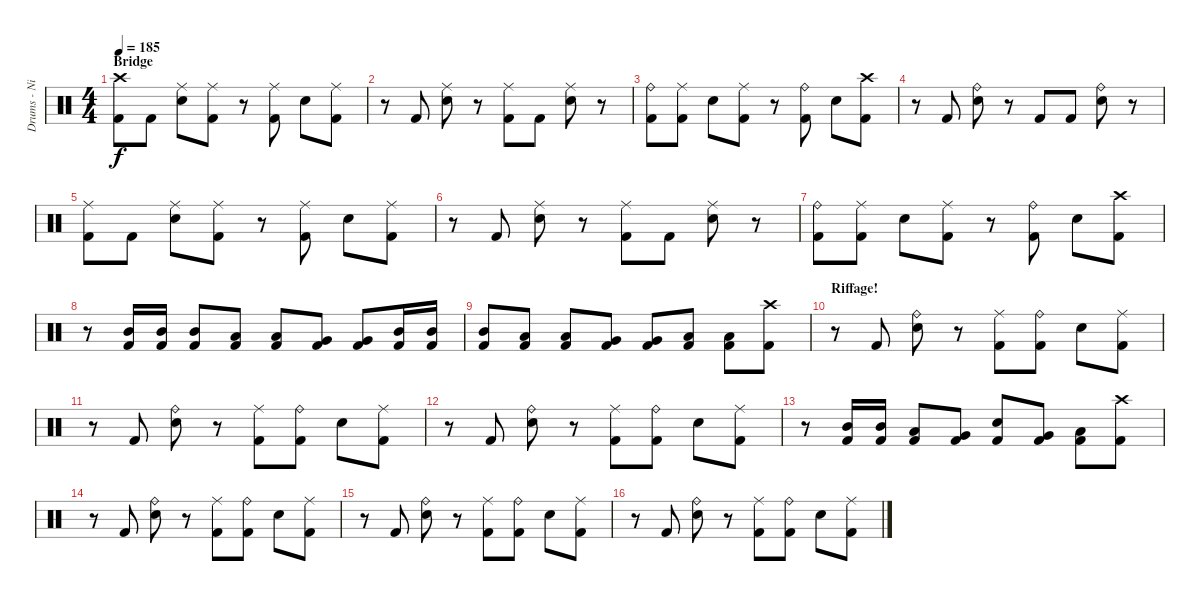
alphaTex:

\track ("Drums - Nicko" "Drums - Ni") {instrument percussion}
\staff {score}
\articulation defaults
\ts (4 4)
\section ("" "Bridge")
\tempo 185
\clef neutral
\ks c
("Crash high (hit)" "Kick (hit) 2").8{dy f} "Kick (hit) 2".8 ("Ride (middle)" "Snare (hit) 2").8 ("Ride (middle)" "Kick (hit) 2").8 r.8 ("Ride (middle)" "Kick (hit) 2").8 "Snare (hit) 2".8 ("Ride (middle)" "Kick (hit) 2").8 |
r.8 "Kick (hit) 2".8 ("Ride (middle)" "Snare (hit) 2").8 r.8 ("Ride (middle)" "Kick (hit) 2").8 "Kick (hit) 2".8 ("Ride (middle)" "Snare (hit) 2").8 r.8 |
("Ride (bell)" "Kick (hit) 2").8 ("Ride (middle)" "Kick (hit) 2").8 "Snare (hit) 2".8 ("Ride (middle)" "Kick (hit) 2").8 r.8 ("Ride (bell)" "Kick (hit) 2").8 "Snare (hit) 2".8 ("Crash high (hit)" "Kick (hit) 2").8 |
r.8 "Kick (hit) 2".8 ("Ride (bell)" "Snare (hit) 2").8 r.8 "Kick (hit) 2".8 "Kick (hit) 2".8 ("Ride (bell)" "Snare (hit) 2").8 r.8 |
("Ride (middle)" "Kick (hit) 2").8 "Kick (hit) 2".8 ("Ride (middle)" "Snare (hit) 2").8 ("Ride (middle)" "Kick (hit) 2").8 r.8 ("Ride (middle)" "Kick (hit) 2").8 "Snare (hit) 2".8 ("Ride (middle)" "Kick (hit) 2").8 |
r.8 "Kick (hit) 2".8 ("Ride (middle)" "Snare (hit) 2").8 r.8 ("Ride (middle)" "Kick (hit) 2").8 "Kick (hit) 2".8 ("Ride (middle)" "Snare (hit) 2").8 r.8 |
("Ride (bell)" "Kick (hit) 2").8 ("Ride (middle)" "Kick (hit) 2").8 "Snare (hit) 2".8 ("Ride (middle)" "Kick (hit) 2").8 r.8 ("Ride (bell)" "Kick (hit) 2").8 "Snare (hit) 2".8 ("Crash high (hit)" "Kick (hit) 2").8 |
r.8 ("Mid Tom (hit)" "Kick (hit) 2").16 ("Mid Tom (hit)" "Kick (hit) 2").16 ("Mid Tom (hit)" "Kick (hit) 2").8 ("Low Tom (hit)" "Kick (hit) 2").8 ("Low Tom (hit)" "Kick (hit) 2").8 ("Very Low Tom (hit)" "Kick (hit) 2").8 ("Very Low Tom (hit)" "Kick (hit) 2").8 ("Mid Tom (hit)" "Kick (hit) 2").16 ("Mid Tom (hit)" "Kick (hit) 2").16 |
("Mid Tom (hit)" "Kick (hit) 2").8 ("Low Tom (hit)" "Kick (hit) 2").8 ("Low Tom (hit)" "Kick (hit) 2").8 ("Very Low Tom (hit)" "Kick (hit) 2").8 ("Very Low Tom (hit)" "Kick (hit) 2").8 ("Low Floor Tom (hit)" "Kick (hit) 2").8 ("Low Floor Tom (hit)" "Kick (hit) 2").8 ("Crash high (hit)" "Kick (hit) 2").8 |
\section ("" "Riffage!")
r.8 "Kick (hit) 2".8 ("Ride (bell)" "Snare (hit) 2").8 r.8 ("Ride (middle)" "Kick (hit) 2").8 ("Ride (bell)" "Kick (hit) 2").8 "Snare (hit) 2".8 ("Ride (middle)" "Kick (hit) 2").8 |
r.8 "Kick (hit) 2".8 ("Ride (bell)" "Snare (hit) 2").8 r.8 ("Ride (middle)" "Kick (hit) 2").8 ("Ride (bell)" "Kick (hit) 2").8 "Snare (hit) 2".8 ("Ride (middle)" "Kick (hit) 2").8 |
r.8 "Kick (hit) 2".8 ("Ride (bell)" "Snare (hit) 2").8 r.8 ("Ride (middle)" "Kick (hit) 2").8 ("Ride (bell)" "Kick (hit) 2").8 "Snare (hit) 2".8 ("Ride (middle)" "Kick (hit) 2").8 |
r.8 ("Mid Tom (hit)" "Kick (hit) 2").16 ("Mid Tom (hit)" "Kick (hit) 2").16 ("Low Tom (hit)" "Kick (hit) 2").8 ("Very Low Tom (hit)" "Kick (hit) 2").8 ("Snare (hit) 2" "Kick (hit) 2").8 ("Very Low Tom (hit)" "Kick (hit) 2").8 ("Low Floor Tom (hit)" "Kick (hit) 2").8 ("Crash high (hit)" "Kick (hit) 2").8 |
r.8 "Kick (hit) 2".8 ("Ride (bell)" "Snare (hit) 2").8 r.8 ("Ride (middle)" "Kick (hit) 2").8 ("Ride (bell)" "Kick (hit) 2").8 "Snare (hit) 2".8 ("Ride (middle)" "Kick (hit) 2").8 |
r.8 "Kick (hit) 2".8 ("Ride (bell)" "Snare (hit) 2").8 r.8 ("Ride (middle)" "Kick (hit) 2").8 ("Ride (bell)" "Kick (hit) 2").8 "Snare (hit) 2".8 ("Ride (middle)" "Kick (hit) 2").8 |
r.8 "Kick (hit) 2".8 ("Ride (bell)" "Snare (hit) 2").8 r.8 ("Ride (middle)" "Kick (hit) 2").8 ("Ride (bell)" "Kick (hit) 2").8 "Snare (hit) 2".8 ("Ride (middle)" "Kick (hit) 2").8
